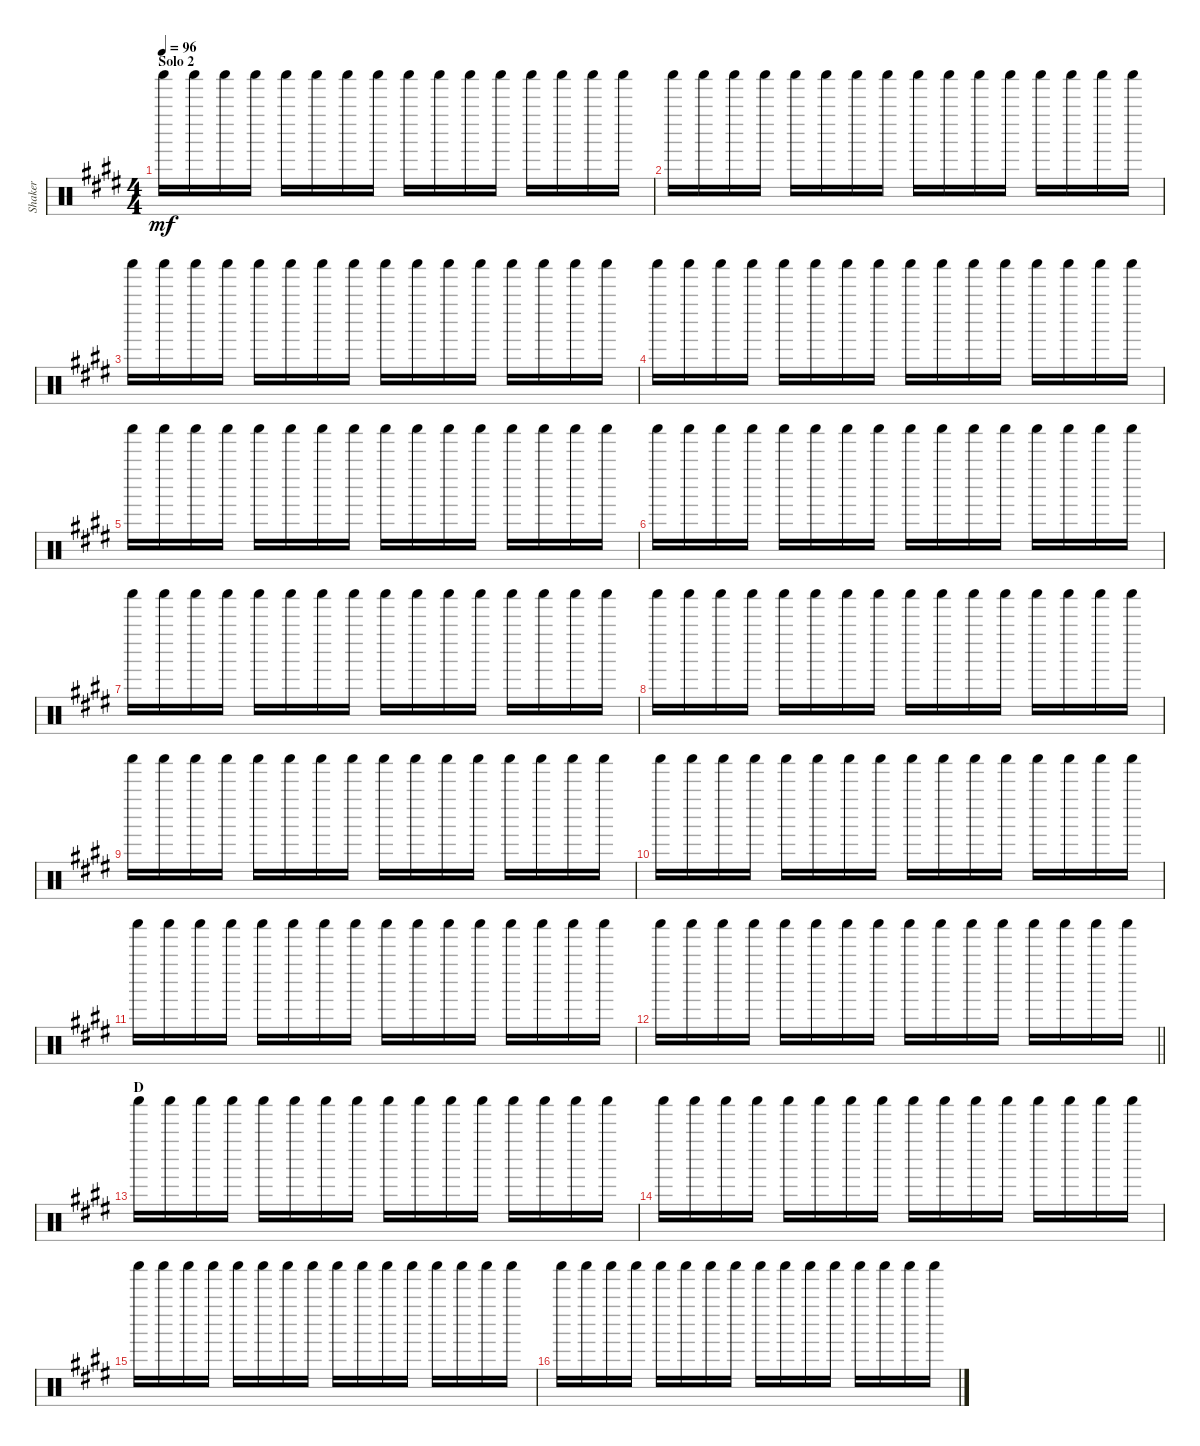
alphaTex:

\track ("Shaker" "Shaker") {instrument percussion}
\staff {score}
\articulation defaults
\ts (4 4)
\section ("" "Solo 2")
\tempo 96
\clef neutral
\ks e "Shaker (hit)".16{dy mf} "Shaker (hit)".16 "Shaker (hit)".16 "Shaker (hit)".16 "Shaker (hit)".16 "Shaker (hit)".16 "Shaker (hit)".16 "Shaker (hit)".16 "Shaker (hit)".16 "Shaker (hit)".16 "Shaker (hit)".16 "Shaker (hit)".16 "Shaker (hit)".16 "Shaker (hit)".16 "Shaker (hit)".16 "Shaker (hit)".16
|
"Shaker (hit)".16 "Shaker (hit)".16 "Shaker (hit)".16 "Shaker (hit)".16 "Shaker (hit)".16 "Shaker (hit)".16 "Shaker (hit)".16 "Shaker (hit)".16 "Shaker (hit)".16 "Shaker (hit)".16 "Shaker (hit)".16 "Shaker (hit)".16 "Shaker (hit)".16 "Shaker (hit)".16 "Shaker (hit)".16 "Shaker (hit)".16 |
"Shaker (hit)".16 "Shaker (hit)".16 "Shaker (hit)".16 "Shaker (hit)".16 "Shaker (hit)".16 "Shaker (hit)".16 "Shaker (hit)".16 "Shaker (hit)".16 "Shaker (hit)".16 "Shaker (hit)".16 "Shaker (hit)".16 "Shaker (hit)".16 "Shaker (hit)".16 "Shaker (hit)".16 "Shaker (hit)".16 "Shaker (hit)".16 |
"Shaker (hit)".16 "Shaker (hit)".16 "Shaker (hit)".16 "Shaker (hit)".16 "Shaker (hit)".16 "Shaker (hit)".16 "Shaker (hit)".16 "Shaker (hit)".16 "Shaker (hit)".16 "Shaker (hit)".16 "Shaker (hit)".16 "Shaker (hit)".16 "Shaker (hit)".16 "Shaker (hit)".16 "Shaker (hit)".16 "Shaker (hit)".16 |
"Shaker (hit)".16 "Shaker (hit)".16 "Shaker (hit)".16 "Shaker (hit)".16 "Shaker (hit)".16 "Shaker (hit)".16 "Shaker (hit)".16 "Shaker (hit)".16 "Shaker (hit)".16 "Shaker (hit)".16 "Shaker (hit)".16 "Shaker (hit)".16 "Shaker (hit)".16 "Shaker (hit)".16 "Shaker (hit)".16 "Shaker (hit)".16 |
"Shaker (hit)".16 "Shaker (hit)".16 "Shaker (hit)".16 "Shaker (hit)".16 "Shaker (hit)".16 "Shaker (hit)".16 "Shaker (hit)".16 "Shaker (hit)".16 "Shaker (hit)".16 "Shaker (hit)".16 "Shaker (hit)".16 "Shaker (hit)".16 "Shaker (hit)".16 "Shaker (hit)".16 "Shaker (hit)".16 "Shaker (hit)".16 |
"Shaker (hit)".16 "Shaker (hit)".16 "Shaker (hit)".16 "Shaker (hit)".16 "Shaker (hit)".16 "Shaker (hit)".16 "Shaker (hit)".16 "Shaker (hit)".16 "Shaker (hit)".16 "Shaker (hit)".16 "Shaker (hit)".16 "Shaker (hit)".16 "Shaker (hit)".16 "Shaker (hit)".16 "Shaker (hit)".16 "Shaker (hit)".16 |
"Shaker (hit)".16 "Shaker (hit)".16 "Shaker (hit)".16 "Shaker (hit)".16 "Shaker (hit)".16 "Shaker (hit)".16 "Shaker (hit)".16 "Shaker (hit)".16 "Shaker (hit)".16 "Shaker (hit)".16 "Shaker (hit)".16 "Shaker (hit)".16 "Shaker (hit)".16 "Shaker (hit)".16 "Shaker (hit)".16 "Shaker (hit)".16 |
"Shaker (hit)".16 "Shaker (hit)".16 "Shaker (hit)".16 "Shaker (hit)".16 "Shaker (hit)".16 "Shaker (hit)".16 "Shaker (hit)".16 "Shaker (hit)".16 "Shaker (hit)".16 "Shaker (hit)".16 "Shaker (hit)".16 "Shaker (hit)".16 "Shaker (hit)".16 "Shaker (hit)".16 "Shaker (hit)".16 "Shaker (hit)".16 |
"Shaker (hit)".16 "Shaker (hit)".16 "Shaker (hit)".16 "Shaker (hit)".16 "Shaker (hit)".16 "Shaker (hit)".16 "Shaker (hit)".16 "Shaker (hit)".16 "Shaker (hit)".16 "Shaker (hit)".16 "Shaker (hit)".16 "Shaker (hit)".16 "Shaker (hit)".16 "Shaker (hit)".16 "Shaker (hit)".16 "Shaker (hit)".16 |
"Shaker (hit)".16 "Shaker (hit)".16 "Shaker (hit)".16 "Shaker (hit)".16 "Shaker (hit)".16 "Shaker (hit)".16 "Shaker (hit)".16 "Shaker (hit)".16 "Shaker (hit)".16 "Shaker (hit)".16 "Shaker (hit)".16 "Shaker (hit)".16 "Shaker (hit)".16 "Shaker (hit)".16 "Shaker (hit)".16 "Shaker (hit)".16 |
\barLineRight lightlight "Shaker (hit)".16 "Shaker (hit)".16 "Shaker (hit)".16 "Shaker (hit)".16 "Shaker (hit)".16 "Shaker (hit)".16 "Shaker (hit)".16 "Shaker (hit)".16 "Shaker (hit)".16 "Shaker (hit)".16 "Shaker (hit)".16 "Shaker (hit)".16 "Shaker (hit)".16 "Shaker (hit)".16 "Shaker (hit)".16 "Shaker (hit)".16
|
\section ("" "D")
"Shaker (hit)".16 "Shaker (hit)".16 "Shaker (hit)".16 "Shaker (hit)".16 "Shaker (hit)".16 "Shaker (hit)".16 "Shaker (hit)".16 "Shaker (hit)".16 "Shaker (hit)".16 "Shaker (hit)".16 "Shaker (hit)".16 "Shaker (hit)".16 "Shaker (hit)".16 "Shaker (hit)".16 "Shaker (hit)".16 "Shaker (hit)".16 |
"Shaker (hit)".16 "Shaker (hit)".16 "Shaker (hit)".16 "Shaker (hit)".16 "Shaker (hit)".16 "Shaker (hit)".16 "Shaker (hit)".16 "Shaker (hit)".16 "Shaker (hit)".16 "Shaker (hit)".16 "Shaker (hit)".16 "Shaker (hit)".16 "Shaker (hit)".16 "Shaker (hit)".16 "Shaker (hit)".16 "Shaker (hit)".16 |
"Shaker (hit)".16 "Shaker (hit)".16 "Shaker (hit)".16 "Shaker (hit)".16 "Shaker (hit)".16 "Shaker (hit)".16 "Shaker (hit)".16 "Shaker (hit)".16 "Shaker (hit)".16 "Shaker (hit)".16 "Shaker (hit)".16 "Shaker (hit)".16 "Shaker (hit)".16 "Shaker (hit)".16 "Shaker (hit)".16 "Shaker (hit)".16 |
"Shaker (hit)".16 "Shaker (hit)".16 "Shaker (hit)".16 "Shaker (hit)".16 "Shaker (hit)".16 "Shaker (hit)".16 "Shaker (hit)".16 "Shaker (hit)".16 "Shaker (hit)".16 "Shaker (hit)".16 "Shaker (hit)".16 "Shaker (hit)".16 "Shaker (hit)".16 "Shaker (hit)".16 "Shaker (hit)".16 "Shaker (hit)".16
